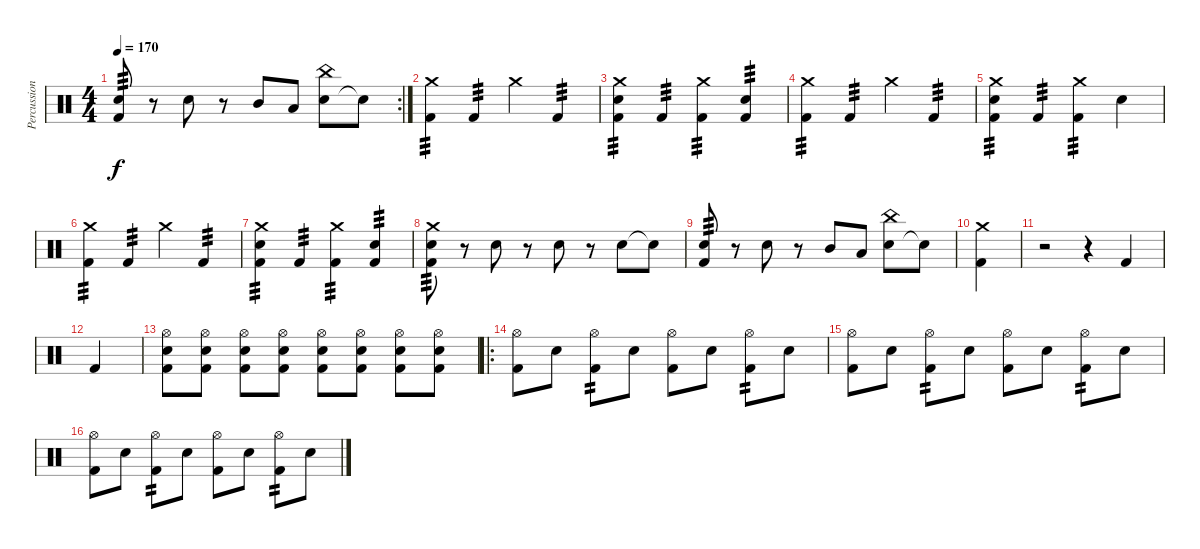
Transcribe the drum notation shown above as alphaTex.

\track ("Percussion" "Percussion") {instrument percussion}
\staff {score}
\articulation defaults
\rc 2
\ts (4 4)
\tempo 170
\clef neutral
\ks c
("Kick (hit) 2" "Electric Snare (hit)").8{tp 3 dy f} r.8 "Electric Snare (hit)".8 r.8 "Mid Tom (hit)".8 "Low Tom (hit)".8 ("Electric Snare (hit)" "China (hit)").8 "Snare (hit)"{t}.8 |
("Kick (hit) 2" "Crash medium (hit)").4{tp 3} "Kick (hit) 2".4{tp 3} "Crash medium (hit)".4 "Kick (hit) 2".4{tp 3} |
("Kick (hit) 2" "Electric Snare (hit)" "Crash medium (hit)").4{tp 3} "Kick (hit) 2".4{tp 3} ("Kick (hit) 2" "Crash medium (hit)").4{tp 3} ("Kick (hit) 2" "Electric Snare (hit)").4{tp 3} |
("Kick (hit) 2" "Crash medium (hit)").4{tp 3} "Kick (hit) 2".4{tp 3} "Crash medium (hit)".4 "Kick (hit) 2".4{tp 3} |
("Kick (hit) 2" "Electric Snare (hit)" "Crash medium (hit)").4{tp 3} "Kick (hit) 2".4{tp 3} ("Kick (hit) 2" "Crash medium (hit)").4{tp 3} "Electric Snare (hit)".4 |
("Kick (hit) 2" "Crash medium (hit)").4{tp 3} "Kick (hit) 2".4{tp 3} "Crash medium (hit)".4 "Kick (hit) 2".4{tp 3} |
("Kick (hit) 2" "Electric Snare (hit)" "Crash medium (hit)").4{tp 3} "Kick (hit) 2".4{tp 3} ("Kick (hit) 2" "Crash medium (hit)").4{tp 3} ("Kick (hit) 2" "Electric Snare (hit)").4{tp 3} |
("Kick (hit) 2" "Electric Snare (hit)" "Crash medium (hit)").8{tp 3} r.8 "Electric Snare (hit)".8 r.8 "Electric Snare (hit)".8 r.8 "Electric Snare (hit)".8 "Snare (hit)"{t}.8 |
("Kick (hit) 2" "Electric Snare (hit)").8{tp 3} r.8 "Electric Snare (hit)".8 r.8 "Mid Tom (hit)".8 "Low Tom (hit)".8 ("Electric Snare (hit)" "China (hit)").8 "Snare (hit)"{t}.8 |
("Kick (hit) 2" "Crash medium (hit)").4 |
r.2 r.4 "Kick (hit) 2".4 |
"Kick (hit) 2".4 |
("Kick (hit) 2" "Electric Snare (hit)" "Hi-Hat (open)").8 ("Kick (hit) 2" "Electric Snare (hit)" "Hi-Hat (open)").8 ("Kick (hit) 2" "Electric Snare (hit)" "Hi-Hat (open)").8 ("Kick (hit) 2" "Electric Snare (hit)" "Hi-Hat (open)").8 ("Kick (hit) 2" "Electric Snare (hit)" "Hi-Hat (open)").8 ("Kick (hit) 2" "Electric Snare (hit)" "Hi-Hat (open)").8 ("Kick (hit) 2" "Electric Snare (hit)" "Hi-Hat (open)").8 ("Kick (hit) 2" "Electric Snare (hit)" "Hi-Hat (open)").8 |
\ro
("Kick (hit) 2" "Hi-Hat (open)").8 "Electric Snare (hit)".8 ("Kick (hit) 2" "Hi-Hat (open)").8{tp 2} "Electric Snare (hit)".8 ("Kick (hit) 2" "Hi-Hat (open)").8 "Electric Snare (hit)".8 ("Kick (hit) 2" "Hi-Hat (open)").8{tp 2} "Electric Snare (hit)".8 |
("Kick (hit) 2" "Hi-Hat (open)").8 "Electric Snare (hit)".8 ("Kick (hit) 2" "Hi-Hat (open)").8{tp 2} "Electric Snare (hit)".8 ("Kick (hit) 2" "Hi-Hat (open)").8 "Electric Snare (hit)".8 ("Kick (hit) 2" "Hi-Hat (open)").8{tp 2} "Electric Snare (hit)".8 |
("Kick (hit) 2" "Hi-Hat (open)").8 "Electric Snare (hit)".8 ("Kick (hit) 2" "Hi-Hat (open)").8{tp 2} "Electric Snare (hit)".8 ("Kick (hit) 2" "Hi-Hat (open)").8 "Electric Snare (hit)".8 ("Kick (hit) 2" "Hi-Hat (open)").8{tp 2} "Electric Snare (hit)".8
